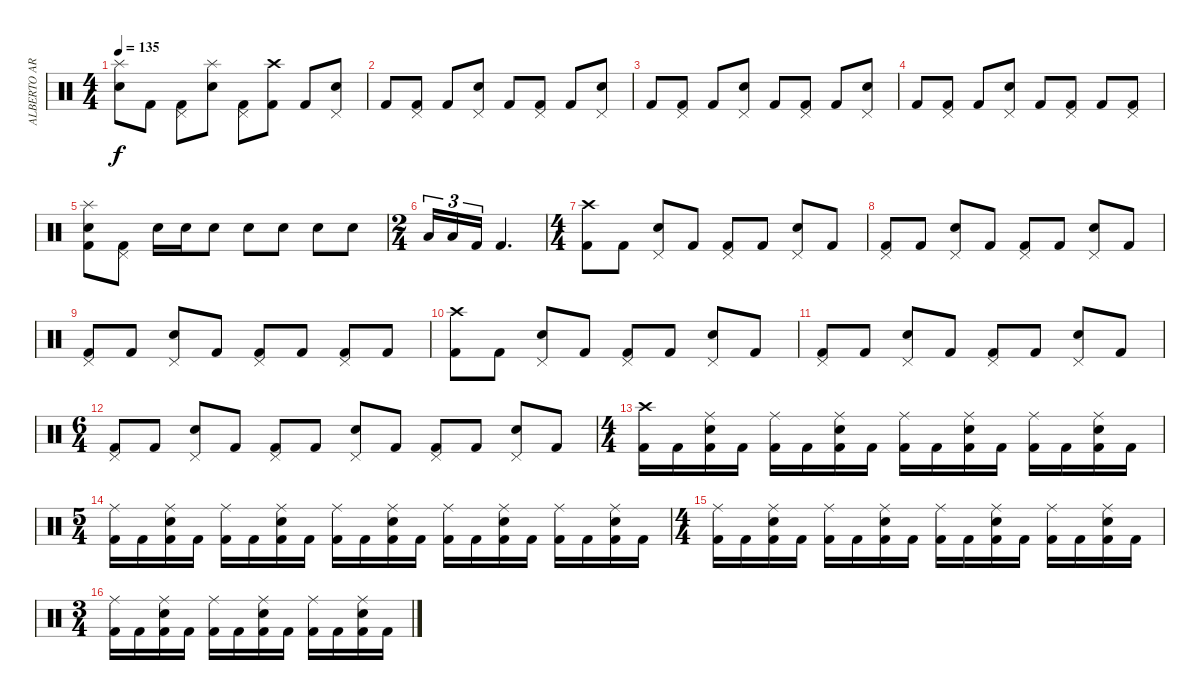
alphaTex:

\track ("ALBERTO ARDINES" "ALBERTO AR") {instrument percussion}
\staff {score}
\articulation defaults
\ts (4 4)
\tempo 135
\clef neutral
\ks c
("Splash (hit)" "Electric Snare (hit)").8{dy f} "Kick (hit) 2".8 ("Pedal Hi-Hat (hit)" "Kick (hit) 2").8 ("Splash (hit)" "Electric Snare (hit)").8 ("Pedal Hi-Hat (hit)" "Kick (hit) 2").8 ("Crash high (hit)" "Kick (hit) 2").8 "Kick (hit) 2".8 ("Pedal Hi-Hat (hit)" "Electric Snare (hit)").8 |
"Kick (hit) 2".8 ("Pedal Hi-Hat (hit)" "Kick (hit) 2").8 "Kick (hit) 2".8 ("Pedal Hi-Hat (hit)" "Electric Snare (hit)").8 "Kick (hit) 2".8 ("Pedal Hi-Hat (hit)" "Kick (hit) 2").8 "Kick (hit) 2".8 ("Pedal Hi-Hat (hit)" "Electric Snare (hit)").8 |
"Kick (hit) 2".8 ("Pedal Hi-Hat (hit)" "Kick (hit) 2").8 "Kick (hit) 2".8 ("Pedal Hi-Hat (hit)" "Electric Snare (hit)").8 "Kick (hit) 2".8 ("Pedal Hi-Hat (hit)" "Kick (hit) 2").8 "Kick (hit) 2".8 ("Pedal Hi-Hat (hit)" "Electric Snare (hit)").8 |
"Kick (hit) 2".8 ("Pedal Hi-Hat (hit)" "Kick (hit) 2").8 "Kick (hit) 2".8 ("Pedal Hi-Hat (hit)" "Electric Snare (hit)").8 "Kick (hit) 2".8 ("Pedal Hi-Hat (hit)" "Kick (hit) 2").8 "Kick (hit) 2".8 ("Pedal Hi-Hat (hit)" "Kick (hit) 2").8 |
("Splash (hit)" "Electric Snare (hit)" "Kick (hit) 2").8 ("Pedal Hi-Hat (hit)" "Kick (hit) 2").8 "Electric Snare (hit)".16 "Electric Snare (hit)".16 "Electric Snare (hit)".8 "Electric Snare (hit)".8 "Electric Snare (hit)".8 "Electric Snare (hit)".8 "Electric Snare (hit)".8 |
\ts (2 4)
"Low Tom (hit)".16{tu (3 2)} "Low Floor Tom (hit)".16{tu (3 2)} "Kick (hit) 2".16{tu (3 2)} "Kick (hit) 2".4{d} |
\ts (4 4)
("Crash high (hit)" "Kick (hit) 2").8 "Kick (hit) 2".8 ("Pedal Hi-Hat (hit)" "Electric Snare (hit)").8 "Kick (hit) 2".8 ("Pedal Hi-Hat (hit)" "Kick (hit) 2").8 "Kick (hit) 2".8 ("Pedal Hi-Hat (hit)" "Electric Snare (hit)").8 "Kick (hit) 2".8 |
("Pedal Hi-Hat (hit)" "Kick (hit) 2").8 "Kick (hit) 2".8 ("Pedal Hi-Hat (hit)" "Electric Snare (hit)").8 "Kick (hit) 2".8 ("Pedal Hi-Hat (hit)" "Kick (hit) 2").8 "Kick (hit) 2".8 ("Pedal Hi-Hat (hit)" "Electric Snare (hit)").8 "Kick (hit) 2".8 |
("Pedal Hi-Hat (hit)" "Kick (hit) 2").8 "Kick (hit) 2".8 ("Pedal Hi-Hat (hit)" "Electric Snare (hit)").8 "Kick (hit) 2".8 ("Pedal Hi-Hat (hit)" "Kick (hit) 2").8 "Kick (hit) 2".8 ("Pedal Hi-Hat (hit)" "Kick (hit) 2").8 "Kick (hit) 2".8 |
("Crash high (hit)" "Kick (hit) 2").8 "Kick (hit) 2".8 ("Pedal Hi-Hat (hit)" "Electric Snare (hit)").8 "Kick (hit) 2".8 ("Pedal Hi-Hat (hit)" "Kick (hit) 2").8 "Kick (hit) 2".8 ("Pedal Hi-Hat (hit)" "Electric Snare (hit)").8 "Kick (hit) 2".8 |
("Pedal Hi-Hat (hit)" "Kick (hit) 2").8 "Kick (hit) 2".8 ("Pedal Hi-Hat (hit)" "Electric Snare (hit)").8 "Kick (hit) 2".8 ("Pedal Hi-Hat (hit)" "Kick (hit) 2").8 "Kick (hit) 2".8 ("Pedal Hi-Hat (hit)" "Electric Snare (hit)").8 "Kick (hit) 2".8 |
\ts (6 4)
("Pedal Hi-Hat (hit)" "Kick (hit) 2").8 "Kick (hit) 2".8 ("Pedal Hi-Hat (hit)" "Electric Snare (hit)").8 "Kick (hit) 2".8 ("Pedal Hi-Hat (hit)" "Kick (hit) 2").8 "Kick (hit) 2".8 ("Pedal Hi-Hat (hit)" "Electric Snare (hit)").8 "Kick (hit) 2".8 ("Pedal Hi-Hat (hit)" "Kick (hit) 2").8 "Kick (hit) 2".8 ("Pedal Hi-Hat (hit)" "Electric Snare (hit)").8 "Kick (hit) 2".8 |
\ts (4 4)
("Crash high (hit)" "Kick (hit) 2").16 "Kick (hit) 2".16 ("Ride (middle)" "Electric Snare (hit)" "Kick (hit) 2").16 "Kick (hit) 2".16 ("Ride (middle)" "Kick (hit) 2").16 "Kick (hit) 2".16 ("Ride (middle)" "Electric Snare (hit)" "Kick (hit) 2").16 "Kick (hit) 2".16 ("Ride (middle)" "Kick (hit) 2").16 "Kick (hit) 2".16 ("Ride (middle)" "Electric Snare (hit)" "Kick (hit) 2").16 "Kick (hit) 2".16 ("Ride (middle)" "Kick (hit) 2").16 "Kick (hit) 2".16 ("Ride (middle)" "Electric Snare (hit)" "Kick (hit) 2").16 "Kick (hit) 2".16 |
\ts (5 4)
("Ride (middle)" "Kick (hit) 2").16 "Kick (hit) 2".16 ("Ride (middle)" "Electric Snare (hit)" "Kick (hit) 2").16 "Kick (hit) 2".16 ("Ride (middle)" "Kick (hit) 2").16 "Kick (hit) 2".16 ("Ride (middle)" "Electric Snare (hit)" "Kick (hit) 2").16 "Kick (hit) 2".16 ("Ride (middle)" "Kick (hit) 2").16 "Kick (hit) 2".16 ("Ride (middle)" "Electric Snare (hit)" "Kick (hit) 2").16 "Kick (hit) 2".16 ("Ride (middle)" "Kick (hit) 2").16 "Kick (hit) 2".16 ("Ride (middle)" "Electric Snare (hit)" "Kick (hit) 2").16 "Kick (hit) 2".16 ("Ride (middle)" "Kick (hit) 2").16 "Kick (hit) 2".16 ("Ride (middle)" "Electric Snare (hit)" "Kick (hit) 2").16 "Kick (hit) 2".16 |
\ts (4 4)
("Ride (middle)" "Kick (hit) 2").16 "Kick (hit) 2".16 ("Ride (middle)" "Electric Snare (hit)" "Kick (hit) 2").16 "Kick (hit) 2".16 ("Ride (middle)" "Kick (hit) 2").16 "Kick (hit) 2".16 ("Ride (middle)" "Electric Snare (hit)" "Kick (hit) 2").16 "Kick (hit) 2".16 ("Ride (middle)" "Kick (hit) 2").16 "Kick (hit) 2".16 ("Ride (middle)" "Electric Snare (hit)" "Kick (hit) 2").16 "Kick (hit) 2".16 ("Ride (middle)" "Kick (hit) 2").16 "Kick (hit) 2".16 ("Ride (middle)" "Electric Snare (hit)" "Kick (hit) 2").16 "Kick (hit) 2".16 |
\ts (3 4)
("Ride (middle)" "Kick (hit) 2").16 "Kick (hit) 2".16 ("Ride (middle)" "Electric Snare (hit)" "Kick (hit) 2").16 "Kick (hit) 2".16 ("Ride (middle)" "Kick (hit) 2").16 "Kick (hit) 2".16 ("Ride (middle)" "Electric Snare (hit)" "Kick (hit) 2").16 "Kick (hit) 2".16 ("Ride (middle)" "Kick (hit) 2").16 "Kick (hit) 2".16 ("Ride (middle)" "Electric Snare (hit)" "Kick (hit) 2").16 "Kick (hit) 2".16
